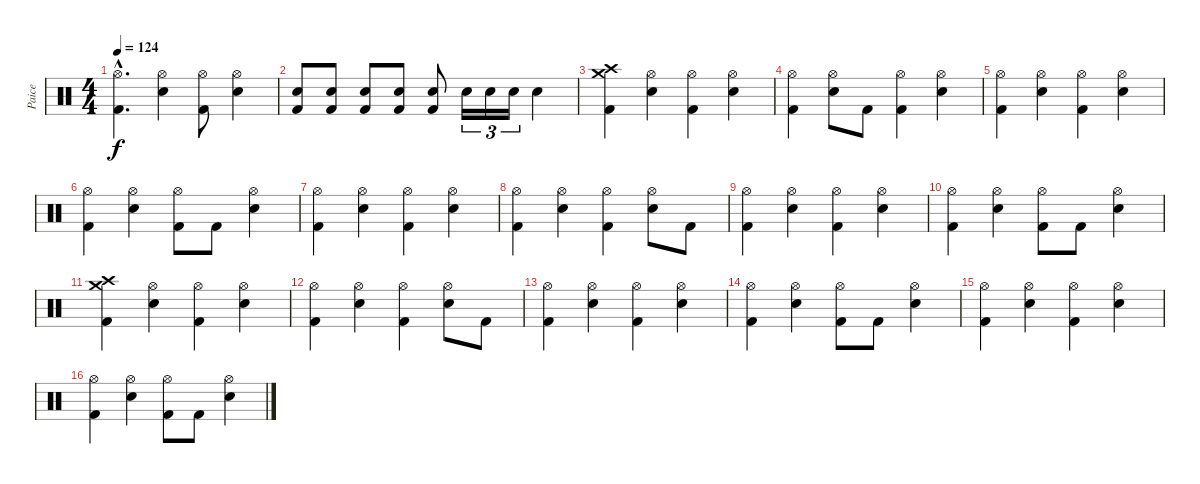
\track ("Paice" "Paice") {instrument percussion}
\staff {score}
\articulation defaults
\ts (4 4)
\tempo 124
\clef neutral
\ks c
("Hi-Hat (open)"{hac} "Kick (hit) 2"{hac}).4{d dy f} ("Hi-Hat (open)" "Electric Snare (hit)").4 ("Hi-Hat (open)" "Kick (hit) 2").8 ("Hi-Hat (open)" "Electric Snare (hit)").4 |
("Electric Snare (hit)" "Kick (hit) 2").8 ("Electric Snare (hit)" "Kick (hit) 2").8 ("Electric Snare (hit)" "Kick (hit) 2").8 ("Electric Snare (hit)" "Kick (hit) 2").8 ("Electric Snare (hit)" "Kick (hit) 2").8 "Electric Snare (hit)".16{tu (3 2)} "Electric Snare (hit)".16{tu (3 2)} "Electric Snare (hit)".16{tu (3 2)} "Electric Snare (hit)".4 |
("Crash high (hit)" "Crash medium (hit)" "Kick (hit) 2").4 ("Hi-Hat (open)" "Electric Snare (hit)").4 ("Hi-Hat (open)" "Kick (hit) 2").4 ("Hi-Hat (open)" "Electric Snare (hit)").4 |
("Hi-Hat (open)" "Kick (hit) 2").4 ("Hi-Hat (open)" "Electric Snare (hit)").8 "Kick (hit) 2".8 ("Hi-Hat (open)" "Kick (hit) 2").4 ("Hi-Hat (open)" "Electric Snare (hit)").4 |
("Hi-Hat (open)" "Kick (hit) 2").4 ("Hi-Hat (open)" "Electric Snare (hit)").4 ("Hi-Hat (open)" "Kick (hit) 2").4 ("Hi-Hat (open)" "Electric Snare (hit)").4 |
("Hi-Hat (open)" "Kick (hit) 2").4 ("Hi-Hat (open)" "Electric Snare (hit)").4 ("Hi-Hat (open)" "Kick (hit) 2").8 "Kick (hit) 2".8 ("Hi-Hat (open)" "Electric Snare (hit)").4 |
("Hi-Hat (open)" "Kick (hit) 2").4 ("Hi-Hat (open)" "Electric Snare (hit)").4 ("Hi-Hat (open)" "Kick (hit) 2").4 ("Hi-Hat (open)" "Electric Snare (hit)").4 |
("Hi-Hat (open)" "Kick (hit) 2").4 ("Hi-Hat (open)" "Electric Snare (hit)").4 ("Hi-Hat (open)" "Kick (hit) 2").4 ("Hi-Hat (open)" "Electric Snare (hit)").8 "Kick (hit) 2".8 |
("Hi-Hat (open)" "Kick (hit) 2").4 ("Hi-Hat (open)" "Electric Snare (hit)").4 ("Hi-Hat (open)" "Kick (hit) 2").4 ("Hi-Hat (open)" "Electric Snare (hit)").4 |
("Hi-Hat (open)" "Kick (hit) 2").4 ("Hi-Hat (open)" "Electric Snare (hit)").4 ("Hi-Hat (open)" "Kick (hit) 2").8 "Kick (hit) 2".8 ("Hi-Hat (open)" "Electric Snare (hit)").4 |
("Crash high (hit)" "Crash medium (hit)" "Kick (hit) 2").4 ("Hi-Hat (open)" "Electric Snare (hit)").4 ("Hi-Hat (open)" "Kick (hit) 2").4 ("Hi-Hat (open)" "Electric Snare (hit)").4 |
("Hi-Hat (open)" "Kick (hit) 2").4 ("Hi-Hat (open)" "Electric Snare (hit)").4 ("Hi-Hat (open)" "Kick (hit) 2").4 ("Hi-Hat (open)" "Electric Snare (hit)").8 "Kick (hit) 2".8 |
("Hi-Hat (open)" "Kick (hit) 2").4 ("Hi-Hat (open)" "Electric Snare (hit)").4 ("Hi-Hat (open)" "Kick (hit) 2").4 ("Hi-Hat (open)" "Electric Snare (hit)").4 |
("Hi-Hat (open)" "Kick (hit) 2").4 ("Hi-Hat (open)" "Electric Snare (hit)").4 ("Hi-Hat (open)" "Kick (hit) 2").8 "Kick (hit) 2".8 ("Hi-Hat (open)" "Electric Snare (hit)").4 |
("Hi-Hat (open)" "Kick (hit) 2").4 ("Hi-Hat (open)" "Electric Snare (hit)").4 ("Hi-Hat (open)" "Kick (hit) 2").4 ("Hi-Hat (open)" "Electric Snare (hit)").4 |
("Hi-Hat (open)" "Kick (hit) 2").4 ("Hi-Hat (open)" "Electric Snare (hit)").4 ("Hi-Hat (open)" "Kick (hit) 2").8 "Kick (hit) 2".8 ("Hi-Hat (open)" "Electric Snare (hit)").4
